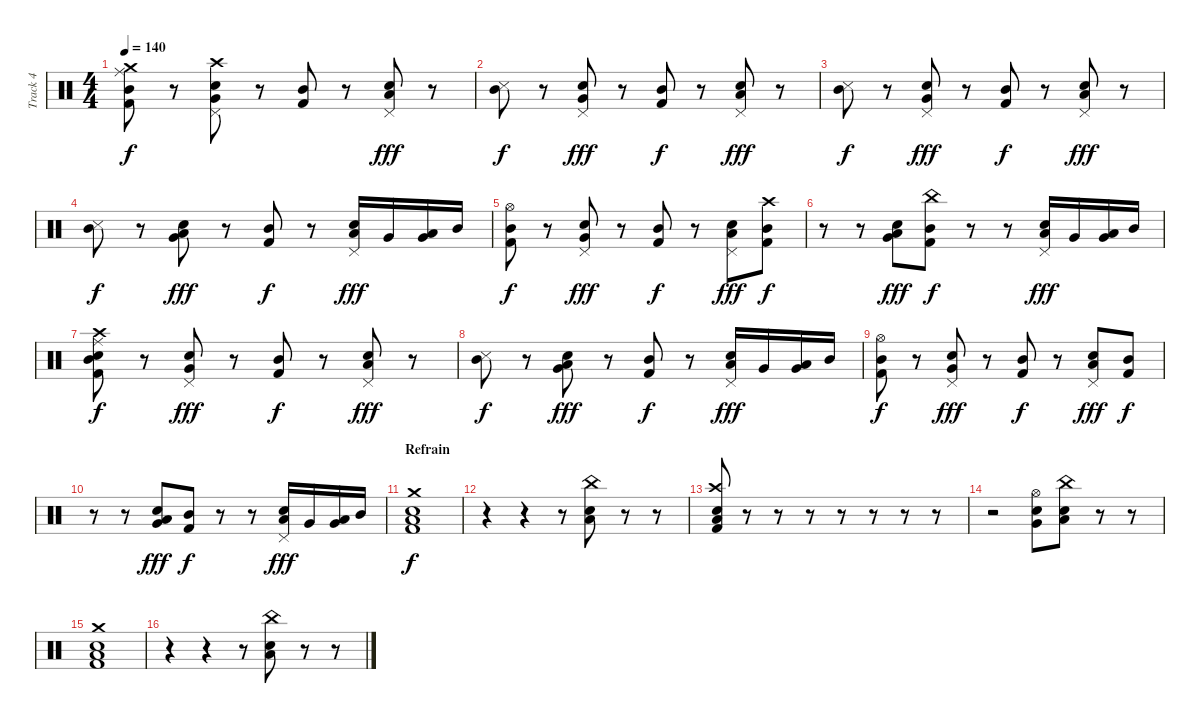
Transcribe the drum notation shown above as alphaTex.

\track ("Track 4" "Track 4") {instrument percussion}
\staff {score}
\articulation defaults
\ts (4 4)
\tempo 140
\clef neutral
\ks c
("Mid Tom (hit)" "Kick (hit) 2" "Ride (middle)" "Crash medium (hit)").8{dy f} r.8 ("Pedal Hi-Hat (hit)" "Snare (hit) 2" "Very Low Tom (hit)" "Crash high (hit)").8 r.8 ("Mid Tom (hit)" "Kick (hit) 2").8 r.8 ("Low Tom (hit)" "Electric Snare (hit)" "Pedal Hi-Hat (hit)").8{dy fff} r.8 |
("Mid Tom (hit)" "Snare (side stick) 3").8{dy f} r.8 ("Pedal Hi-Hat (hit)" "Snare (hit) 2" "Very Low Tom (hit)").8{dy fff} r.8 ("Mid Tom (hit)" "Kick (hit) 2").8{dy f} r.8 ("Low Tom (hit)" "Electric Snare (hit)" "Pedal Hi-Hat (hit)").8{dy fff} r.8 |
("Mid Tom (hit)" "Snare (side stick) 3").8{dy f} r.8 ("Pedal Hi-Hat (hit)" "Snare (hit) 2" "Very Low Tom (hit)").8{dy fff} r.8 ("Mid Tom (hit)" "Kick (hit) 2").8{dy f} r.8 ("Low Tom (hit)" "Electric Snare (hit)" "Pedal Hi-Hat (hit)").8{dy fff} r.8 |
("Mid Tom (hit)" "Snare (side stick) 3").8{dy f} r.8 ("Snare (hit) 2" "Low Tom (hit)" "Very Low Tom (hit)").8{dy fff} r.8 ("Mid Tom (hit)" "Kick (hit) 2").8{dy f} r.8 ("Low Tom (hit)" "Pedal Hi-Hat (hit)" "Electric Snare (hit)").16{dy fff} "Very Low Tom (hit)".16 ("Very Low Tom (hit)" "Low Tom (hit)").16 "Mid Tom (hit)".16 |
("Mid Tom (hit)" "Kick (hit) 2" "Hi-Hat (open)").8{dy f} r.8 ("Pedal Hi-Hat (hit)" "Snare (hit) 2" "Very Low Tom (hit)").8{dy fff} r.8 ("Mid Tom (hit)" "Kick (hit) 2").8{dy f} r.8 ("Low Tom (hit)" "Electric Snare (hit)" "Pedal Hi-Hat (hit)").8{dy fff} ("Mid Tom (hit)" "Kick (hit) 2" "Crash high (hit)").8{dy f} |
r.8 r.8 ("Snare (hit) 2" "Low Tom (hit)" "Very Low Tom (hit)").8{dy fff} ("Mid Tom (hit)" "Kick (hit) 2" "China (hit)").8{dy f} r.8 r.8 ("Low Tom (hit)" "Pedal Hi-Hat (hit)" "Electric Snare (hit)").16{dy fff} "Very Low Tom (hit)".16 ("Very Low Tom (hit)" "Low Tom (hit)").16 "Mid Tom (hit)".16 |
("Mid Tom (hit)" "Kick (hit) 2" "Snare (hit) 2" "Ride (middle)" "Crash high (hit)").8{dy f} r.8 ("Pedal Hi-Hat (hit)" "Snare (hit) 2" "Very Low Tom (hit)").8{dy fff} r.8 ("Mid Tom (hit)" "Kick (hit) 2").8{dy f} r.8 ("Low Tom (hit)" "Electric Snare (hit)" "Pedal Hi-Hat (hit)").8{dy fff} r.8 |
("Mid Tom (hit)" "Snare (side stick) 3").8{dy f} r.8 ("Snare (hit) 2" "Low Tom (hit)" "Very Low Tom (hit)").8{dy fff} r.8 ("Mid Tom (hit)" "Kick (hit) 2").8{dy f} r.8 ("Low Tom (hit)" "Pedal Hi-Hat (hit)" "Electric Snare (hit)").16{dy fff} "Very Low Tom (hit)".16 ("Very Low Tom (hit)" "Low Tom (hit)").16 "Mid Tom (hit)".16 |
("Mid Tom (hit)" "Kick (hit) 2" "Hi-Hat (open)").8{dy f} r.8 ("Pedal Hi-Hat (hit)" "Snare (hit) 2" "Very Low Tom (hit)").8{dy fff} r.8 ("Mid Tom (hit)" "Kick (hit) 2").8{dy f} r.8 ("Low Tom (hit)" "Electric Snare (hit)" "Pedal Hi-Hat (hit)").8{dy fff} ("Mid Tom (hit)" "Kick (hit) 2").8{dy f} |
r.8 r.8 ("Snare (hit) 2" "Low Tom (hit)" "Very Low Tom (hit)").8{dy fff} ("Mid Tom (hit)" "Kick (hit) 2").8{dy f} r.8 r.8 ("Low Tom (hit)" "Pedal Hi-Hat (hit)" "Electric Snare (hit)").16{dy fff} "Very Low Tom (hit)".16 ("Very Low Tom (hit)" "Low Tom (hit)").16 "Mid Tom (hit)".16 |
\section ("" "Refrain")
("Low Tom (hit)" "Kick (hit) 2" "Snare (hit) 2" "Crash medium (hit)").1{dy f} |
r.4 r.4 r.8 ("Low Floor Tom (hit)" "Snare (hit) 2" "China (hit)").8 r.8 r.8 |
("Low Tom (hit)" "Snare (hit) 2" "Crash high (hit)" "Kick (hit) 2").8 r.8 r.8 r.8 r.8 r.8 r.8 r.8 |
r.2 ("Very Low Tom (hit)" "Electric Snare (hit)" "Hi-Hat (open)").8 ("Low Floor Tom (hit)" "Snare (hit) 2" "China (hit)").8 r.8 r.8 |
("Low Tom (hit)" "Kick (hit) 2" "Snare (hit) 2" "Crash medium (hit)").1 |
r.4 r.4 r.8 ("Low Floor Tom (hit)" "Snare (hit) 2" "China (hit)").8 r.8 r.8
